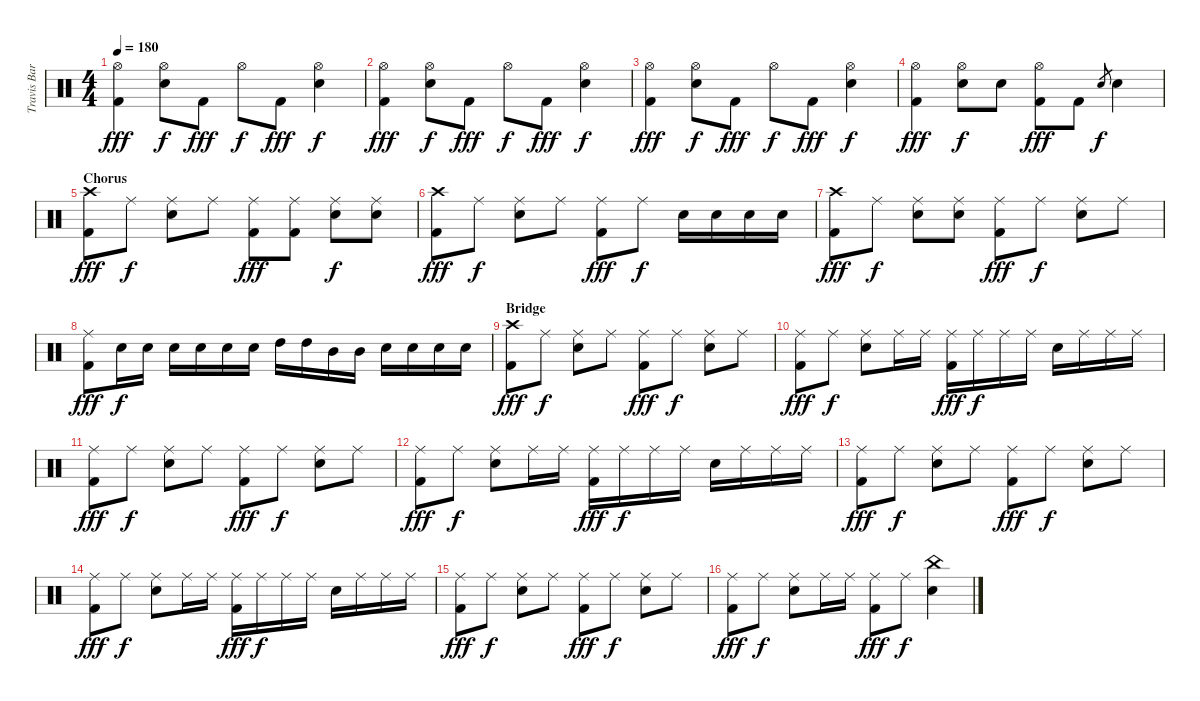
\track ("Travis Barker" "Travis Bar") {instrument percussion}
\staff {score}
\articulation defaults
\ts (4 4)
\tempo 180
\clef neutral
\ks c
("Hi-Hat (open)" "Kick (hit) 2").4{dy fff} ("Hi-Hat (open)" "Electric Snare (hit)").8{dy f} "Kick (hit) 2".8{dy fff} "Hi-Hat (open)".8{dy f} "Kick (hit) 2".8{dy fff} ("Hi-Hat (open)" "Electric Snare (hit)").4{dy f} |
("Hi-Hat (open)" "Kick (hit) 2").4{dy fff} ("Hi-Hat (open)" "Electric Snare (hit)").8{dy f} "Kick (hit) 2".8{dy fff} "Hi-Hat (open)".8{dy f} "Kick (hit) 2".8{dy fff} ("Hi-Hat (open)" "Electric Snare (hit)").4{dy f} |
("Hi-Hat (open)" "Kick (hit) 2").4{dy fff} ("Hi-Hat (open)" "Electric Snare (hit)").8{dy f} "Kick (hit) 2".8{dy fff} "Hi-Hat (open)".8{dy f} "Kick (hit) 2".8{dy fff} ("Hi-Hat (open)" "Electric Snare (hit)").4{dy f} |
("Hi-Hat (open)" "Kick (hit) 2").4{dy fff} ("Hi-Hat (open)" "Electric Snare (hit)").8{dy f} "Electric Snare (hit)".8 ("Hi-Hat (open)" "Kick (hit) 2").8{dy fff} "Kick (hit) 2".8 "Electric Snare (hit)".8{gr dy f} "Electric Snare (hit)".4 |
\section ("" "Chorus")
("Crash high (hit)" "Kick (hit) 2").8{dy fff} "Ride (middle)".8{dy f} ("Ride (middle)" "Electric Snare (hit)").8 "Ride (middle)".8 ("Ride (middle)" "Kick (hit) 2").8{dy fff} ("Ride (middle)" "Kick (hit) 2").8 ("Ride (middle)" "Electric Snare (hit)").8{dy f} ("Ride (middle)" "Electric Snare (hit)").8 |
("Crash high (hit)" "Kick (hit) 2").8{dy fff} "Ride (middle)".8{dy f} ("Ride (middle)" "Electric Snare (hit)").8 "Ride (middle)".8 ("Ride (middle)" "Kick (hit) 2").8{dy fff} "Ride (middle)".8{dy f} "Electric Snare (hit)".16 "Electric Snare (hit)".16 "Electric Snare (hit)".16 "Electric Snare (hit)".16 |
("Crash high (hit)" "Kick (hit) 2").8{dy fff} "Ride (middle)".8{dy f} ("Ride (middle)" "Electric Snare (hit)").8 ("Ride (middle)" "Electric Snare (hit)").8 ("Ride (middle)" "Kick (hit) 2").8{dy fff} "Ride (middle)".8{dy f} ("Ride (middle)" "Electric Snare (hit)").8 "Ride (middle)".8 |
("Ride (middle)" "Kick (hit) 2").8{dy fff} "Electric Snare (hit)".16{dy f} "Electric Snare (hit)".16 "Electric Snare (hit)".16 "Electric Snare (hit)".16 "Electric Snare (hit)".16 "Electric Snare (hit)".16 "High Tom (hit)".16 "High Tom (hit)".16 "Mid Tom (hit)".16 "Mid Tom (hit)".16 "Electric Snare (hit)".16 "Electric Snare (hit)".16 "Electric Snare (hit)".16 "Electric Snare (hit)".16 |
\section ("" "Bridge")
("Crash high (hit)" "Kick (hit) 2").8{dy fff} "Ride (middle)".8{dy f} ("Ride (middle)" "Electric Snare (hit)").8 "Ride (middle)".8 ("Ride (middle)" "Kick (hit) 2").8{dy fff} "Ride (middle)".8{dy f} ("Ride (middle)" "Electric Snare (hit)").8 "Ride (middle)".8 |
("Ride (middle)" "Kick (hit) 2").8{dy fff} "Ride (middle)".8{dy f} ("Ride (middle)" "Electric Snare (hit)").8 "Ride (middle)".16 "Ride (middle)".16 ("Ride (middle)" "Kick (hit) 2").16{dy fff} "Ride (middle)".16{dy f} "Ride (middle)".16 "Ride (middle)".16 "Electric Snare (hit)".16 "Ride (middle)".16 "Ride (middle)".16 "Ride (middle)".16 |
("Ride (middle)" "Kick (hit) 2").8{dy fff} "Ride (middle)".8{dy f} ("Ride (middle)" "Electric Snare (hit)").8 "Ride (middle)".8 ("Ride (middle)" "Kick (hit) 2").8{dy fff} "Ride (middle)".8{dy f} ("Ride (middle)" "Electric Snare (hit)").8 "Ride (middle)".8 |
("Ride (middle)" "Kick (hit) 2").8{dy fff} "Ride (middle)".8{dy f} ("Ride (middle)" "Electric Snare (hit)").8 "Ride (middle)".16 "Ride (middle)".16 ("Ride (middle)" "Kick (hit) 2").16{dy fff} "Ride (middle)".16{dy f} "Ride (middle)".16 "Ride (middle)".16 "Electric Snare (hit)".16 "Ride (middle)".16 "Ride (middle)".16 "Ride (middle)".16 |
("Ride (middle)" "Kick (hit) 2").8{dy fff} "Ride (middle)".8{dy f} ("Ride (middle)" "Electric Snare (hit)").8 "Ride (middle)".8 ("Ride (middle)" "Kick (hit) 2").8{dy fff} "Ride (middle)".8{dy f} ("Ride (middle)" "Electric Snare (hit)").8 "Ride (middle)".8 |
("Ride (middle)" "Kick (hit) 2").8{dy fff} "Ride (middle)".8{dy f} ("Ride (middle)" "Electric Snare (hit)").8 "Ride (middle)".16 "Ride (middle)".16 ("Ride (middle)" "Kick (hit) 2").16{dy fff} "Ride (middle)".16{dy f} "Ride (middle)".16 "Ride (middle)".16 "Electric Snare (hit)".16 "Ride (middle)".16 "Ride (middle)".16 "Ride (middle)".16 |
("Ride (middle)" "Kick (hit) 2").8{dy fff} "Ride (middle)".8{dy f} ("Ride (middle)" "Electric Snare (hit)").8 "Ride (middle)".8 ("Ride (middle)" "Kick (hit) 2").8{dy fff} "Ride (middle)".8{dy f} ("Ride (middle)" "Electric Snare (hit)").8 "Ride (middle)".8 |
("Ride (middle)" "Kick (hit) 2").8{dy fff} "Ride (middle)".8{dy f} ("Ride (middle)" "Electric Snare (hit)").8 "Ride (middle)".16 "Ride (middle)".16 ("Ride (middle)" "Kick (hit) 2").8{dy fff} "Ride (middle)".8{dy f} ("China (hit)" "Electric Snare (hit)").4
